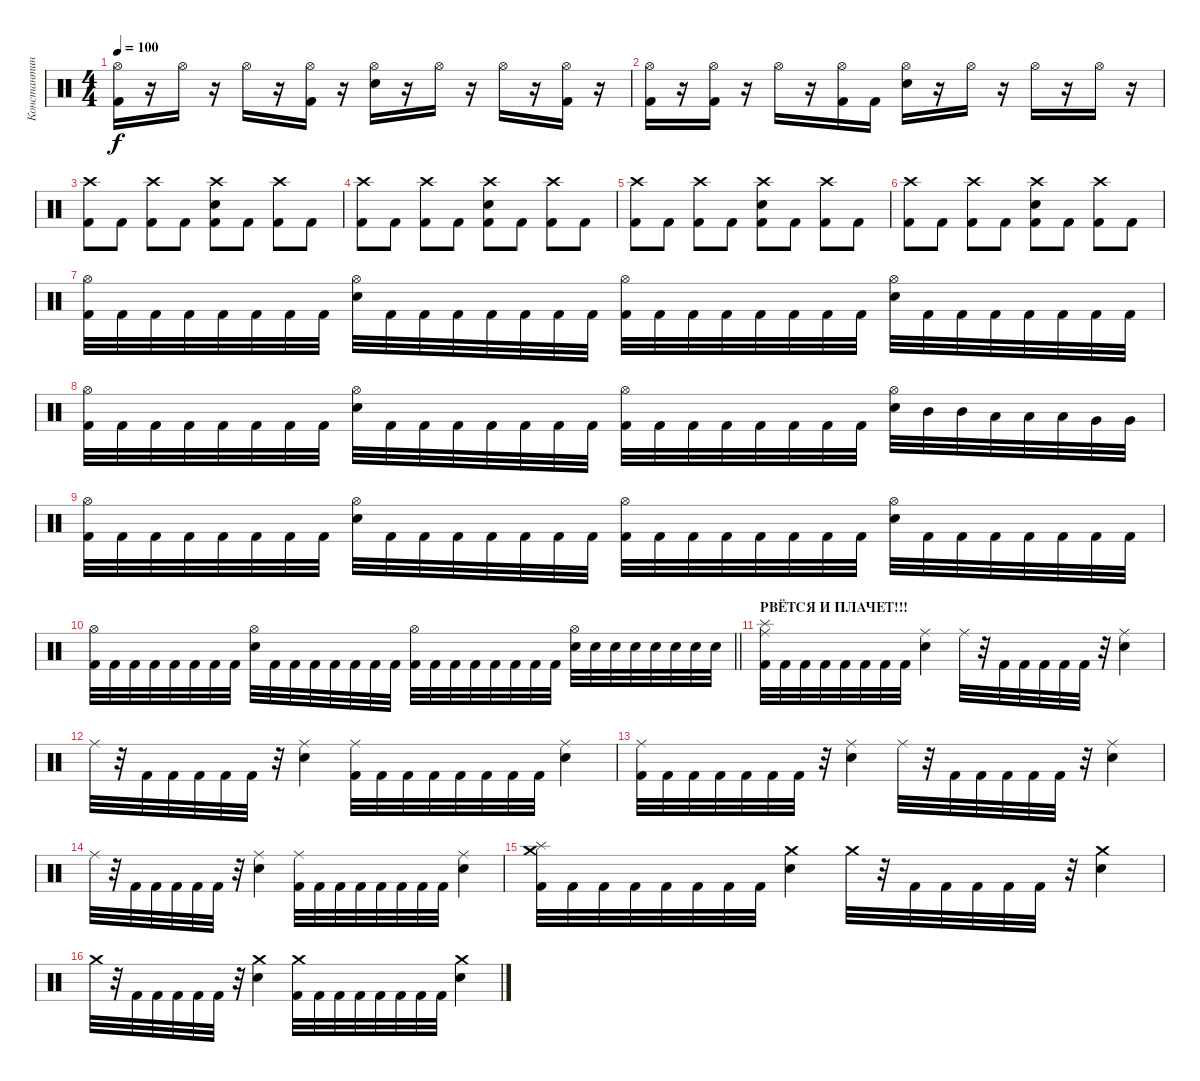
\track ("Константин \"Салян\" Сальников" "Константин") {instrument percussion}
\staff {score}
\articulation defaults
\ts (4 4)
\tempo 100
\clef neutral
\ks c
("Hi-Hat (open)" "Kick (hit) 2").16{dy f} r.16 "Hi-Hat (open)".16 r.16 "Hi-Hat (open)".16 r.16 ("Hi-Hat (open)" "Kick (hit) 2").16 r.16 ("Hi-Hat (open)" "Electric Snare (hit)").16 r.16 "Hi-Hat (open)".16 r.16 "Hi-Hat (open)".16 r.16 ("Hi-Hat (open)" "Kick (hit) 2").16 r.16 |
("Hi-Hat (open)" "Kick (hit) 2").16 r.16 ("Hi-Hat (open)" "Kick (hit) 2").16 r.16 "Hi-Hat (open)".16 r.16 ("Hi-Hat (open)" "Kick (hit) 2").16 "Kick (hit) 2".16 ("Hi-Hat (open)" "Electric Snare (hit)").16 r.16 "Hi-Hat (open)".16 r.16 "Hi-Hat (open)".16 r.16 "Hi-Hat (open)".16 r.16 |
("Crash high (hit)" "Kick (hit) 2").8 "Kick (hit) 2".8 ("Crash high (hit)" "Kick (hit) 2").8 "Kick (hit) 2".8 ("Crash high (hit)" "Kick (hit) 2" "Electric Snare (hit)").8 "Kick (hit) 2".8 ("Crash high (hit)" "Kick (hit) 2").8 "Kick (hit) 2".8 |
("Crash high (hit)" "Kick (hit) 2").8 "Kick (hit) 2".8 ("Crash high (hit)" "Kick (hit) 2").8 "Kick (hit) 2".8 ("Crash high (hit)" "Kick (hit) 2" "Electric Snare (hit)").8 "Kick (hit) 2".8 ("Crash high (hit)" "Kick (hit) 2").8 "Kick (hit) 2".8 |
("Crash high (hit)" "Kick (hit) 2").8 "Kick (hit) 2".8 ("Crash high (hit)" "Kick (hit) 2").8 "Kick (hit) 2".8 ("Crash high (hit)" "Kick (hit) 2" "Electric Snare (hit)").8 "Kick (hit) 2".8 ("Crash high (hit)" "Kick (hit) 2").8 "Kick (hit) 2".8 |
("Crash high (hit)" "Kick (hit) 2").8 "Kick (hit) 2".8 ("Crash high (hit)" "Kick (hit) 2").8 "Kick (hit) 2".8 ("Crash high (hit)" "Kick (hit) 2" "Electric Snare (hit)").8 "Kick (hit) 2".8 ("Crash high (hit)" "Kick (hit) 2").8 "Kick (hit) 2".8 |
("Hi-Hat (open)" "Kick (hit) 2").32 "Kick (hit) 2".32 "Kick (hit) 2".32 "Kick (hit) 2".32 "Kick (hit) 2".32 "Kick (hit) 2".32 "Kick (hit) 2".32 "Kick (hit) 2".32 ("Hi-Hat (open)" "Electric Snare (hit)").32 "Kick (hit) 2".32 "Kick (hit) 2".32 "Kick (hit) 2".32 "Kick (hit) 2".32 "Kick (hit) 2".32 "Kick (hit) 2".32 "Kick (hit) 2".32 ("Hi-Hat (open)" "Kick (hit) 2").32 "Kick (hit) 2".32 "Kick (hit) 2".32 "Kick (hit) 2".32 "Kick (hit) 2".32 "Kick (hit) 2".32 "Kick (hit) 2".32 "Kick (hit) 2".32 ("Hi-Hat (open)" "Electric Snare (hit)").32 "Kick (hit) 2".32 "Kick (hit) 2".32 "Kick (hit) 2".32 "Kick (hit) 2".32 "Kick (hit) 2".32 "Kick (hit) 2".32 "Kick (hit) 2".32 |
("Hi-Hat (open)" "Kick (hit) 2").32 "Kick (hit) 2".32 "Kick (hit) 2".32 "Kick (hit) 2".32 "Kick (hit) 2".32 "Kick (hit) 2".32 "Kick (hit) 2".32 "Kick (hit) 2".32 ("Hi-Hat (open)" "Electric Snare (hit)").32 "Kick (hit) 2".32 "Kick (hit) 2".32 "Kick (hit) 2".32 "Kick (hit) 2".32 "Kick (hit) 2".32 "Kick (hit) 2".32 "Kick (hit) 2".32 ("Hi-Hat (open)" "Kick (hit) 2").32 "Kick (hit) 2".32 "Kick (hit) 2".32 "Kick (hit) 2".32 "Kick (hit) 2".32 "Kick (hit) 2".32 "Kick (hit) 2".32 "Kick (hit) 2".32 ("Hi-Hat (open)" "Electric Snare (hit)").32 "Mid Tom (hit)".32 "Mid Tom (hit)".32 "Low Tom (hit)".32 "Low Tom (hit)".32 "Low Tom (hit)".32 "Very Low Tom (hit)".32 "Very Low Tom (hit)".32 |
("Hi-Hat (open)" "Kick (hit) 2").32 "Kick (hit) 2".32 "Kick (hit) 2".32 "Kick (hit) 2".32 "Kick (hit) 2".32 "Kick (hit) 2".32 "Kick (hit) 2".32 "Kick (hit) 2".32 ("Hi-Hat (open)" "Electric Snare (hit)").32 "Kick (hit) 2".32 "Kick (hit) 2".32 "Kick (hit) 2".32 "Kick (hit) 2".32 "Kick (hit) 2".32 "Kick (hit) 2".32 "Kick (hit) 2".32 ("Hi-Hat (open)" "Kick (hit) 2").32 "Kick (hit) 2".32 "Kick (hit) 2".32 "Kick (hit) 2".32 "Kick (hit) 2".32 "Kick (hit) 2".32 "Kick (hit) 2".32 "Kick (hit) 2".32 ("Hi-Hat (open)" "Electric Snare (hit)").32 "Kick (hit) 2".32 "Kick (hit) 2".32 "Kick (hit) 2".32 "Kick (hit) 2".32 "Kick (hit) 2".32 "Kick (hit) 2".32 "Kick (hit) 2".32 |
\barLineRight lightlight
("Hi-Hat (open)" "Kick (hit) 2").32 "Kick (hit) 2".32 "Kick (hit) 2".32 "Kick (hit) 2".32 "Kick (hit) 2".32 "Kick (hit) 2".32 "Kick (hit) 2".32 "Kick (hit) 2".32 ("Hi-Hat (open)" "Electric Snare (hit)").32 "Kick (hit) 2".32 "Kick (hit) 2".32 "Kick (hit) 2".32 "Kick (hit) 2".32 "Kick (hit) 2".32 "Kick (hit) 2".32 "Kick (hit) 2".32 ("Hi-Hat (open)" "Kick (hit) 2").32 "Kick (hit) 2".32 "Kick (hit) 2".32 "Kick (hit) 2".32 "Kick (hit) 2".32 "Kick (hit) 2".32 "Kick (hit) 2".32 "Kick (hit) 2".32 ("Hi-Hat (open)" "Electric Snare (hit)").32 "Electric Snare (hit)".32 "Electric Snare (hit)".32 "Electric Snare (hit)".32 "Electric Snare (hit)".32 "Electric Snare (hit)".32 "Electric Snare (hit)".32 "Electric Snare (hit)".32 |
\section ("" "РВЁТСЯ И ПЛАЧЕТ!!!")
("Ride (middle)" "Kick (hit) 2" "Splash (hit)").32 "Kick (hit) 2".32 "Kick (hit) 2".32 "Kick (hit) 2".32 "Kick (hit) 2".32 "Kick (hit) 2".32 "Kick (hit) 2".32 "Kick (hit) 2".32 ("Ride (middle)" "Electric Snare (hit)").4 "Ride (middle)".32 r.32 "Kick (hit) 2".32 "Kick (hit) 2".32 "Kick (hit) 2".32 "Kick (hit) 2".32 "Kick (hit) 2".32 r.32 ("Ride (middle)" "Electric Snare (hit)").4 |
"Ride (middle)".32 r.32 "Kick (hit) 2".32 "Kick (hit) 2".32 "Kick (hit) 2".32 "Kick (hit) 2".32 "Kick (hit) 2".32 r.32 ("Ride (middle)" "Electric Snare (hit)").4 ("Ride (middle)" "Kick (hit) 2").32 "Kick (hit) 2".32 "Kick (hit) 2".32 "Kick (hit) 2".32 "Kick (hit) 2".32 "Kick (hit) 2".32 "Kick (hit) 2".32 "Kick (hit) 2".32 ("Ride (middle)" "Electric Snare (hit)").4 |
("Ride (middle)" "Kick (hit) 2").32 "Kick (hit) 2".32 "Kick (hit) 2".32 "Kick (hit) 2".32 "Kick (hit) 2".32 "Kick (hit) 2".32 "Kick (hit) 2".32 r.32 ("Ride (middle)" "Electric Snare (hit)").4 "Ride (middle)".32 r.32 "Kick (hit) 2".32 "Kick (hit) 2".32 "Kick (hit) 2".32 "Kick (hit) 2".32 "Kick (hit) 2".32 r.32 ("Ride (middle)" "Electric Snare (hit)").4 |
"Ride (middle)".32 r.32 "Kick (hit) 2".32 "Kick (hit) 2".32 "Kick (hit) 2".32 "Kick (hit) 2".32 "Kick (hit) 2".32 r.32 ("Ride (middle)" "Electric Snare (hit)").4 ("Ride (middle)" "Kick (hit) 2").32 "Kick (hit) 2".32 "Kick (hit) 2".32 "Kick (hit) 2".32 "Kick (hit) 2".32 "Kick (hit) 2".32 "Kick (hit) 2".32 "Kick (hit) 2".32 ("Ride (middle)" "Electric Snare (hit)").4 |
("Crash medium (hit)" "Kick (hit) 2" "Splash (hit)").32 "Kick (hit) 2".32 "Kick (hit) 2".32 "Kick (hit) 2".32 "Kick (hit) 2".32 "Kick (hit) 2".32 "Kick (hit) 2".32 "Kick (hit) 2".32 ("Crash medium (hit)" "Electric Snare (hit)").4 "Crash medium (hit)".32 r.32 "Kick (hit) 2".32 "Kick (hit) 2".32 "Kick (hit) 2".32 "Kick (hit) 2".32 "Kick (hit) 2".32 r.32 ("Crash medium (hit)" "Electric Snare (hit)").4 |
"Crash medium (hit)".32 r.32 "Kick (hit) 2".32 "Kick (hit) 2".32 "Kick (hit) 2".32 "Kick (hit) 2".32 "Kick (hit) 2".32 r.32 ("Crash medium (hit)" "Electric Snare (hit)").4 ("Crash medium (hit)" "Kick (hit) 2").32 "Kick (hit) 2".32 "Kick (hit) 2".32 "Kick (hit) 2".32 "Kick (hit) 2".32 "Kick (hit) 2".32 "Kick (hit) 2".32 "Kick (hit) 2".32 ("Crash medium (hit)" "Electric Snare (hit)").4
